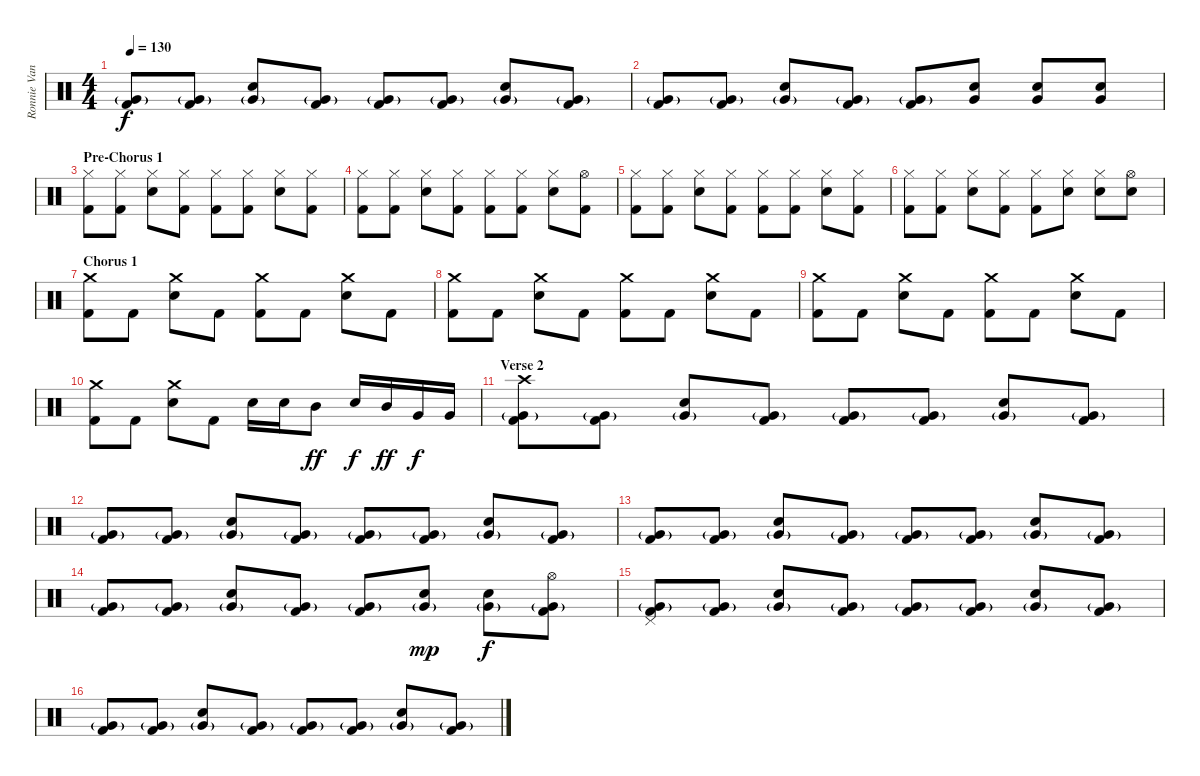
\track ("Ronnie Vannucci Jr." "Ronnie Van") {instrument percussion}
\staff {score}
\articulation defaults
\ts (4 4)
\tempo 130
\clef neutral
\ks c
("Very Low Tom (hit)"{g} "Kick (hit) 2").8{dy f} ("Very Low Tom (hit)"{g} "Kick (hit) 2").8 ("Very Low Tom (hit)"{g} "Electric Snare (hit)").8 ("Very Low Tom (hit)"{g} "Kick (hit) 2").8 ("Very Low Tom (hit)"{g} "Kick (hit) 2").8 ("Very Low Tom (hit)"{g} "Kick (hit) 2").8 ("Very Low Tom (hit)"{g} "Electric Snare (hit)").8 ("Very Low Tom (hit)"{g} "Kick (hit) 2").8 |
("Very Low Tom (hit)"{g} "Kick (hit) 2").8 ("Very Low Tom (hit)"{g} "Kick (hit) 2").8 ("Very Low Tom (hit)"{g} "Electric Snare (hit)").8 ("Very Low Tom (hit)"{g} "Kick (hit) 2").8 ("Very Low Tom (hit)"{g} "Kick (hit) 2").8 ("Very Low Tom (hit)" "Electric Snare (hit)").8 ("Very Low Tom (hit)" "Electric Snare (hit)").8 ("Very Low Tom (hit)" "Electric Snare (hit)").8 |
\section ("" "Pre-Chorus 1")
("Hi-Hat (closed)" "Kick (hit) 2").8 ("Hi-Hat (closed)" "Kick (hit) 2").8 ("Hi-Hat (closed)" "Electric Snare (hit)").8 ("Hi-Hat (closed)" "Kick (hit) 2").8 ("Hi-Hat (closed)" "Kick (hit) 2").8 ("Hi-Hat (closed)" "Kick (hit) 2").8 ("Hi-Hat (closed)" "Electric Snare (hit)").8 ("Hi-Hat (closed)" "Kick (hit) 2").8 |
("Hi-Hat (closed)" "Kick (hit) 2").8 ("Hi-Hat (closed)" "Kick (hit) 2").8 ("Hi-Hat (closed)" "Electric Snare (hit)").8 ("Hi-Hat (closed)" "Kick (hit) 2").8 ("Hi-Hat (closed)" "Kick (hit) 2").8 ("Hi-Hat (closed)" "Kick (hit) 2").8 ("Hi-Hat (closed)" "Electric Snare (hit)").8 ("Hi-Hat (open)" "Kick (hit) 2").8 |
("Hi-Hat (closed)" "Kick (hit) 2").8 ("Hi-Hat (closed)" "Kick (hit) 2").8 ("Hi-Hat (closed)" "Electric Snare (hit)").8 ("Hi-Hat (closed)" "Kick (hit) 2").8 ("Hi-Hat (closed)" "Kick (hit) 2").8 ("Hi-Hat (closed)" "Kick (hit) 2").8 ("Hi-Hat (closed)" "Electric Snare (hit)").8 ("Hi-Hat (closed)" "Kick (hit) 2").8 |
("Hi-Hat (closed)" "Kick (hit) 2").8 ("Hi-Hat (closed)" "Kick (hit) 2").8 ("Hi-Hat (closed)" "Electric Snare (hit)").8 ("Hi-Hat (closed)" "Kick (hit) 2").8 ("Hi-Hat (closed)" "Kick (hit) 2").8 ("Hi-Hat (closed)" "Electric Snare (hit)").8 ("Hi-Hat (closed)" "Electric Snare (hit)").8 ("Hi-Hat (open)" "Electric Snare (hit)").8 |
\section ("" "Chorus 1")
("Crash medium (hit)" "Kick (hit) 2").8 "Kick (hit) 2".8 ("Crash medium (hit)" "Electric Snare (hit)").8 "Kick (hit) 2".8 ("Crash medium (hit)" "Kick (hit) 2").8 "Kick (hit) 2".8 ("Crash medium (hit)" "Electric Snare (hit)").8 "Kick (hit) 2".8 |
("Crash medium (hit)" "Kick (hit) 2").8 "Kick (hit) 2".8 ("Crash medium (hit)" "Electric Snare (hit)").8 "Kick (hit) 2".8 ("Crash medium (hit)" "Kick (hit) 2").8 "Kick (hit) 2".8 ("Crash medium (hit)" "Electric Snare (hit)").8 "Kick (hit) 2".8 |
("Crash medium (hit)" "Kick (hit) 2").8 "Kick (hit) 2".8 ("Crash medium (hit)" "Electric Snare (hit)").8 "Kick (hit) 2".8 ("Crash medium (hit)" "Kick (hit) 2").8 "Kick (hit) 2".8 ("Crash medium (hit)" "Electric Snare (hit)").8 "Kick (hit) 2".8 |
("Crash medium (hit)" "Kick (hit) 2").8 "Kick (hit) 2".8 ("Crash medium (hit)" "Electric Snare (hit)").8 "Kick (hit) 2".8 "Electric Snare (hit)".16 "Electric Snare (hit)".16 "Mid Tom (hit)".8{dy ff} "Electric Snare (hit)".16{dy f} "Mid Tom (hit)".16{dy ff} "Very Low Tom (hit)".16{dy f} "Very Low Tom (hit)".16 |
\section ("" "Verse 2")
("Crash high (hit)" "Very Low Tom (hit)"{g} "Kick (hit) 2").8 ("Very Low Tom (hit)"{g} "Kick (hit) 2").8 ("Very Low Tom (hit)"{g} "Electric Snare (hit)").8 ("Very Low Tom (hit)"{g} "Kick (hit) 2").8 ("Very Low Tom (hit)"{g} "Kick (hit) 2").8 ("Very Low Tom (hit)"{g} "Kick (hit) 2").8 ("Very Low Tom (hit)"{g} "Electric Snare (hit)").8 ("Very Low Tom (hit)"{g} "Kick (hit) 2").8 |
("Very Low Tom (hit)"{g} "Kick (hit) 2").8 ("Very Low Tom (hit)"{g} "Kick (hit) 2").8 ("Very Low Tom (hit)"{g} "Electric Snare (hit)").8 ("Very Low Tom (hit)"{g} "Kick (hit) 2").8 ("Very Low Tom (hit)"{g} "Kick (hit) 2").8 ("Very Low Tom (hit)"{g} "Kick (hit) 2").8 ("Very Low Tom (hit)"{g} "Electric Snare (hit)").8 ("Very Low Tom (hit)"{g} "Kick (hit) 2").8 |
("Very Low Tom (hit)"{g} "Kick (hit) 2").8 ("Very Low Tom (hit)"{g} "Kick (hit) 2").8 ("Very Low Tom (hit)"{g} "Electric Snare (hit)").8 ("Very Low Tom (hit)"{g} "Kick (hit) 2").8 ("Very Low Tom (hit)"{g} "Kick (hit) 2").8 ("Very Low Tom (hit)"{g} "Kick (hit) 2").8 ("Very Low Tom (hit)"{g} "Electric Snare (hit)").8 ("Very Low Tom (hit)"{g} "Kick (hit) 2").8 |
("Very Low Tom (hit)"{g} "Kick (hit) 2").8 ("Very Low Tom (hit)"{g} "Kick (hit) 2").8 ("Very Low Tom (hit)"{g} "Electric Snare (hit)").8 ("Very Low Tom (hit)"{g} "Kick (hit) 2").8 ("Very Low Tom (hit)"{g} "Kick (hit) 2").8 ("Very Low Tom (hit)"{g} "Electric Snare (hit)").8{dy mp} ("Very Low Tom (hit)"{g} "Electric Snare (hit)").8{dy f} ("Hi-Hat (open)" "Very Low Tom (hit)"{g} "Kick (hit) 2").8 |
("Pedal Hi-Hat (hit)" "Very Low Tom (hit)"{g} "Kick (hit) 2").8 ("Very Low Tom (hit)"{g} "Kick (hit) 2").8 ("Very Low Tom (hit)"{g} "Electric Snare (hit)").8 ("Very Low Tom (hit)"{g} "Kick (hit) 2").8 ("Very Low Tom (hit)"{g} "Kick (hit) 2").8 ("Very Low Tom (hit)"{g} "Kick (hit) 2").8 ("Very Low Tom (hit)"{g} "Electric Snare (hit)").8 ("Very Low Tom (hit)"{g} "Kick (hit) 2").8 |
("Very Low Tom (hit)"{g} "Kick (hit) 2").8 ("Very Low Tom (hit)"{g} "Kick (hit) 2").8 ("Very Low Tom (hit)"{g} "Electric Snare (hit)").8 ("Very Low Tom (hit)"{g} "Kick (hit) 2").8 ("Very Low Tom (hit)"{g} "Kick (hit) 2").8 ("Very Low Tom (hit)"{g} "Kick (hit) 2").8 ("Very Low Tom (hit)"{g} "Electric Snare (hit)").8 ("Very Low Tom (hit)"{g} "Kick (hit) 2").8
